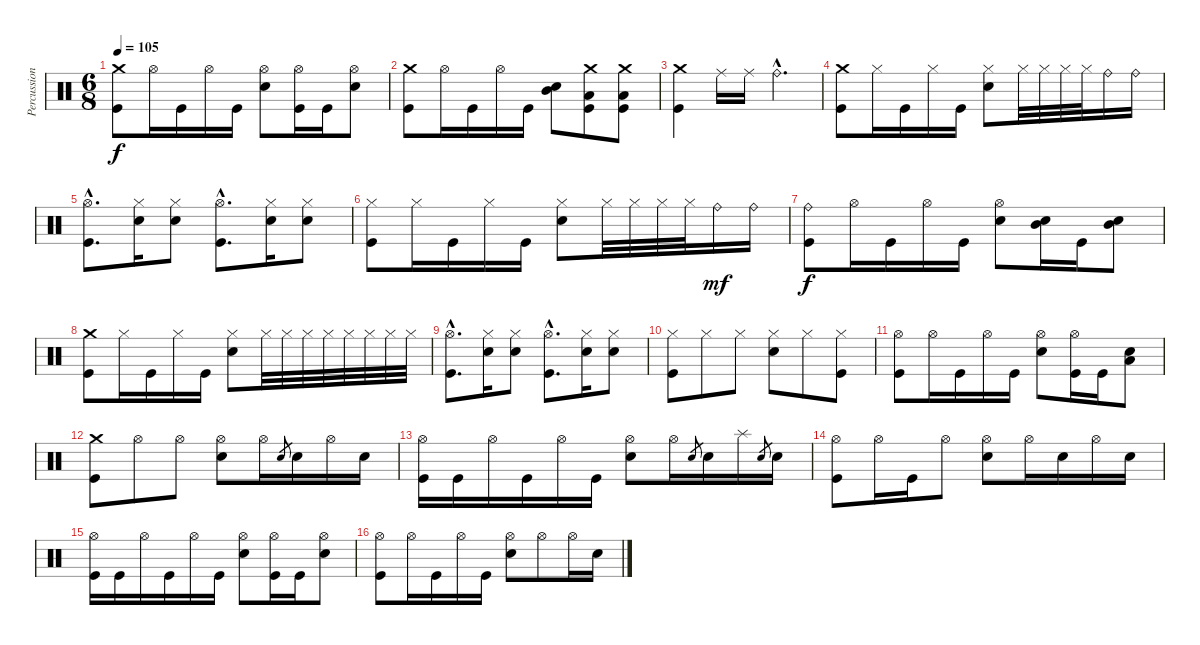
\track ("Percussion" "Percussion") {instrument percussion}
\staff {score}
\articulation defaults
\ts (6 8)
\tempo 105
\clef neutral
\ks c
("Crash medium (hit)" "Kick (hit)").8{dy f} "Hi-Hat (open)".16 "Kick (hit)".16 "Hi-Hat (open)".16 "Kick (hit)".16 ("Hi-Hat (open)" "Electric Snare (hit)").8 ("Hi-Hat (open)" "Kick (hit)").16 "Kick (hit)".16 ("Hi-Hat (open)" "Electric Snare (hit)").8 |
("Crash medium (hit)" "Kick (hit)").8 "Hi-Hat (open)".16 "Kick (hit)".16 "Hi-Hat (open)".16 "Kick (hit)".16 ("Electric Snare (hit)" "Mid Tom (hit)").8 ("Crash medium (hit)" "Low Tom (hit)" "Kick (hit)").8 ("Crash medium (hit)" "Low Floor Tom (hit)" "Kick (hit)").8 |
("Crash medium (hit)" "Kick (hit)").4 "Ride (middle)".16 "Ride (middle)".16 "Ride (bell)"{hac}.4{d} |
("Crash medium (hit)" "Kick (hit)").8 "Hi-Hat (closed)".16 "Kick (hit)".16 "Hi-Hat (closed)".16 "Kick (hit)".16 ("Hi-Hat (closed)" "Electric Snare (hit)").8 "Hi-Hat (closed)".32 "Hi-Hat (closed)".32 "Hi-Hat (closed)".32 "Hi-Hat (closed)".32 "Ride (bell)".16 "Ride (bell)".16 |
("Hi-Hat (open)"{hac} "Kick (hit)"{hac}).8{d} ("Hi-Hat (closed)" "Electric Snare (hit)").16 ("Hi-Hat (closed)" "Electric Snare (hit)").8 ("Hi-Hat (open)"{hac} "Kick (hit)"{hac}).8{d} ("Hi-Hat (closed)" "Electric Snare (hit)").16 ("Hi-Hat (closed)" "Electric Snare (hit)").8 |
("Hi-Hat (closed)" "Kick (hit)").8 "Hi-Hat (closed)".16 "Kick (hit)".16 "Hi-Hat (closed)".16 "Kick (hit)".16 ("Hi-Hat (closed)" "Electric Snare (hit)").8 "Hi-Hat (closed)".32 "Hi-Hat (closed)".32 "Hi-Hat (closed)".32 "Hi-Hat (closed)".32 "Ride (bell)".16{dy mf} "Ride (bell)".16 |
("Ride (bell)" "Kick (hit)").8{dy f} "Hi-Hat (open)".16 "Kick (hit)".16 "Hi-Hat (open)".16 "Kick (hit)".16 ("Hi-Hat (open)" "Electric Snare (hit)").8 ("Electric Snare (hit)" "Mid Tom (hit)").16 "Kick (hit)".16 ("Electric Snare (hit)" "Mid Tom (hit)").8 |
("Crash medium (hit)" "Kick (hit)").8 "Hi-Hat (closed)".16 "Kick (hit)".16 "Hi-Hat (closed)".16 "Kick (hit)".16 ("Hi-Hat (closed)" "Electric Snare (hit)").8 "Hi-Hat (closed)".32 "Hi-Hat (closed)".32 "Hi-Hat (closed)".32 "Hi-Hat (closed)".32 "Hi-Hat (closed)".32 "Hi-Hat (closed)".32 "Hi-Hat (closed)".32 "Hi-Hat (closed)".32 |
("Hi-Hat (open)"{hac} "Kick (hit)"{hac}).8{d} ("Hi-Hat (closed)" "Electric Snare (hit)").16 ("Hi-Hat (closed)" "Electric Snare (hit)").8 ("Hi-Hat (open)"{hac} "Kick (hit)"{hac}).8{d} ("Hi-Hat (closed)" "Electric Snare (hit)").16 ("Hi-Hat (closed)" "Electric Snare (hit)").8 |
("Hi-Hat (closed)" "Kick (hit)").8 "Hi-Hat (closed)".8 "Hi-Hat (closed)".8 ("Hi-Hat (closed)" "Electric Snare (hit)").8 "Hi-Hat (closed)".8 ("Hi-Hat (closed)" "Kick (hit)").8 |
("Hi-Hat (open)" "Kick (hit)").8 "Hi-Hat (open)".16 "Kick (hit)".16 "Hi-Hat (open)".16 "Kick (hit)".16 ("Hi-Hat (open)" "Electric Snare (hit)").8 ("Hi-Hat (open)" "Kick (hit)").16 "Kick (hit)".16 ("Electric Snare (hit)" "Low Floor Tom (hit)").8 |
("Crash medium (hit)" "Kick (hit)").8 "Hi-Hat (open)".8 "Hi-Hat (open)".8 ("Hi-Hat (open)" "Electric Snare (hit)").8 "Hi-Hat (open)".16 "Electric Snare (hit)".8{gr} "Electric Snare (hit)".16 "Hi-Hat (open)".16 "Electric Snare (hit)".16 |
("Hi-Hat (open)" "Kick (hit)").16 "Kick (hit)".16 "Hi-Hat (open)".16 "Kick (hit)".16 "Hi-Hat (open)".16 "Kick (hit)".16 ("Hi-Hat (open)" "Electric Snare (hit)").8 "Hi-Hat (open)".16 "Electric Snare (hit)".8{gr} "Electric Snare (hit)".16 "Splash (hit)".16 "Electric Snare (hit)".8{gr} "Electric Snare (hit)".16 |
("Hi-Hat (open)" "Kick (hit)").8 "Hi-Hat (open)".16 "Kick (hit)".16 "Hi-Hat (open)".8 ("Hi-Hat (open)" "Electric Snare (hit)").8 "Hi-Hat (open)".16 "Electric Snare (hit)".16 "Hi-Hat (open)".16 "Electric Snare (hit)".16 |
("Hi-Hat (open)" "Kick (hit)").16 "Kick (hit)".16 "Hi-Hat (open)".16 "Kick (hit)".16 "Hi-Hat (open)".16 "Kick (hit)".16 ("Hi-Hat (open)" "Electric Snare (hit)").8 ("Hi-Hat (open)" "Kick (hit)").16 "Kick (hit)".16 ("Hi-Hat (open)" "Electric Snare (hit)").8 |
("Hi-Hat (open)" "Kick (hit)").8 "Hi-Hat (open)".16 "Kick (hit)".16 "Hi-Hat (open)".16 "Kick (hit)".16 ("Hi-Hat (open)" "Electric Snare (hit)").8 "Hi-Hat (open)".8 "Hi-Hat (open)".16 "Electric Snare (hit)".16
